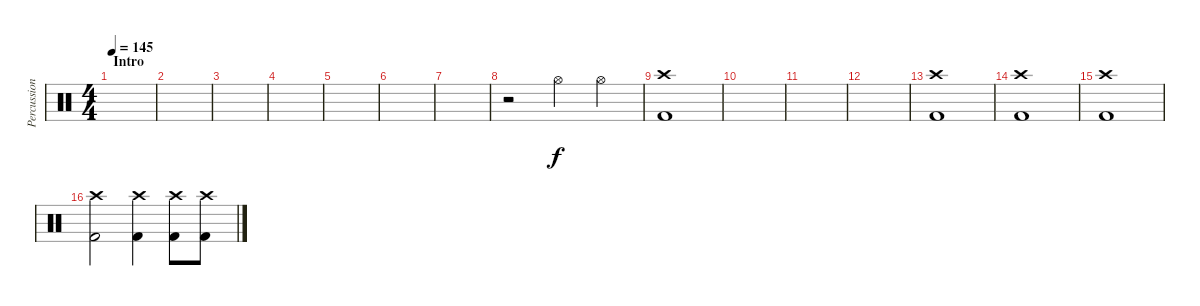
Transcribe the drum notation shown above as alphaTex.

\track ("Percussion" "Percussion") {instrument percussion}
\staff {score}
\articulation defaults
\ts (4 4)
\section ("" "Intro")
\tempo 145
\tempo 60
\tempo 145
\clef neutral
\ks c
|
|
|
|
|
|
|
r.2 "Hi-Hat (open)".4 "Hi-Hat (open)".4 |
("Kick (hit) 2" "Crash high (hit)").1 |
|
|
|
("Kick (hit) 2" "Crash high (hit)").1 |
("Kick (hit) 2" "Crash high (hit)").1 |
("Kick (hit) 2" "Crash high (hit)").1 |
("Kick (hit) 2" "Crash high (hit)").2 ("Kick (hit) 2" "Crash high (hit)").4 ("Kick (hit) 2" "Crash high (hit)").8 ("Kick (hit) 2" "Crash high (hit)").8
